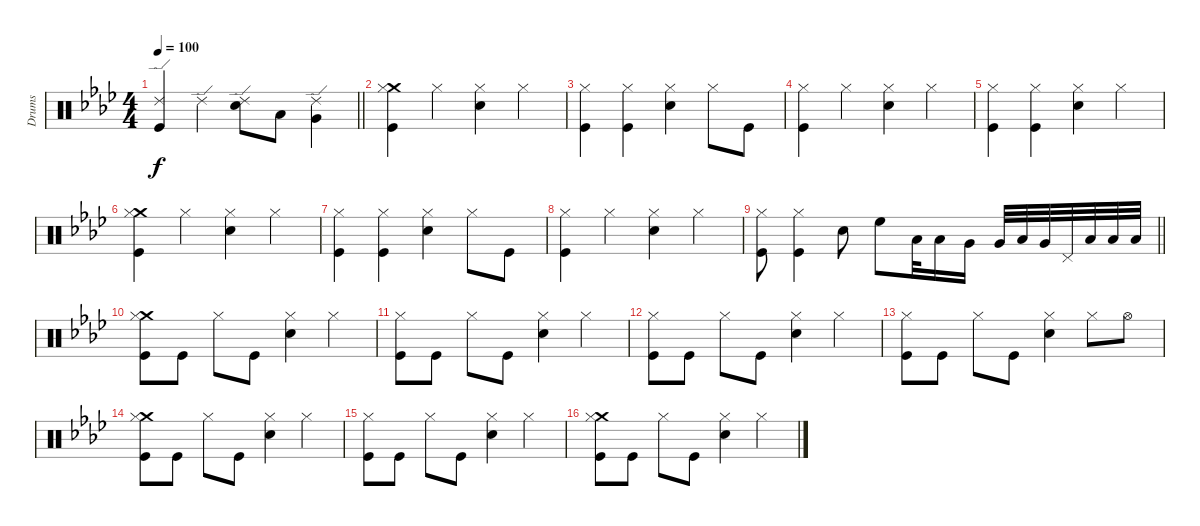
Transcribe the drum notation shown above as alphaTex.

\track ("Drums" "Drums") {instrument percussion}
\staff {score}
\articulation defaults
\ts (4 4)
\tempo 100
\clef neutral
\barLineRight lightlight
\ks ab
("Ride (edge) 2" "Kick (hit)").4{dy f} "Ride (edge) 2".4 ("Ride (edge) 2" "Electric Snare (hit)").8 "Low Tom (hit)".8 ("Ride (edge) 2" "Very Low Tom (hit)").4 |
("Crash medium (hit)" "Hi-Hat (closed)" "Kick (hit)").4 "Hi-Hat (closed)".4 ("Hi-Hat (closed)" "Electric Snare (hit)").4 "Hi-Hat (closed)".4 |
("Hi-Hat (closed)" "Kick (hit)").4 ("Hi-Hat (closed)" "Kick (hit)").4 ("Hi-Hat (closed)" "Electric Snare (hit)").4 "Hi-Hat (closed)".8 "Kick (hit)".8 |
("Hi-Hat (closed)" "Kick (hit)").4 "Hi-Hat (closed)".4 ("Hi-Hat (closed)" "Electric Snare (hit)").4 "Hi-Hat (closed)".4 |
("Hi-Hat (closed)" "Kick (hit)").4 ("Hi-Hat (closed)" "Kick (hit)").4 ("Hi-Hat (closed)" "Electric Snare (hit)").4 "Hi-Hat (closed)".4 |
("Crash medium (hit)" "Hi-Hat (closed)" "Kick (hit)").4 "Hi-Hat (closed)".4 ("Hi-Hat (closed)" "Electric Snare (hit)").4 "Hi-Hat (closed)".4 |
("Hi-Hat (closed)" "Kick (hit)").4 ("Hi-Hat (closed)" "Kick (hit)").4 ("Hi-Hat (closed)" "Electric Snare (hit)").4 "Hi-Hat (closed)".8 "Kick (hit)".8 |
("Hi-Hat (closed)" "Kick (hit)").4 "Hi-Hat (closed)".4 ("Hi-Hat (closed)" "Electric Snare (hit)").4 "Hi-Hat (closed)".4 |
\barLineRight lightlight
("Hi-Hat (closed)" "Kick (hit)").8 ("Hi-Hat (closed)" "Kick (hit)").4 "Electric Snare (hit)".8 "High Floor Tom (hit)".8 "Low Tom (hit)".32 "Low Tom (hit)".16 "Very Low Tom (hit)".16 "Very Low Tom (hit)".32 "Low Tom (hit)".32 "Very Low Tom (hit)".32 "Pedal Hi-Hat (hit)".32 "Low Tom (hit)".32 "Low Tom (hit)".32 "Low Tom (hit)".32 |
("Crash medium (hit)" "Hi-Hat (closed)" "Kick (hit)").8 "Kick (hit)".8 "Hi-Hat (closed)".8 "Kick (hit)".8 ("Hi-Hat (closed)" "Electric Snare (hit)").4 "Hi-Hat (closed)".4 |
("Hi-Hat (closed)" "Kick (hit)").8 "Kick (hit)".8 "Hi-Hat (closed)".8 "Kick (hit)".8 ("Hi-Hat (closed)" "Electric Snare (hit)").4 "Hi-Hat (closed)".4 |
("Hi-Hat (closed)" "Kick (hit)").8 "Kick (hit)".8 "Hi-Hat (closed)".8 "Kick (hit)".8 ("Hi-Hat (closed)" "Electric Snare (hit)").4 "Hi-Hat (closed)".4 |
("Hi-Hat (closed)" "Kick (hit)").8 "Kick (hit)".8 "Hi-Hat (closed)".8 "Kick (hit)".8 ("Hi-Hat (closed)" "Electric Snare (hit)").4 "Hi-Hat (closed)".8 "Hi-Hat (open)".8 |
("Crash medium (hit)" "Hi-Hat (closed)" "Kick (hit)").8 "Kick (hit)".8 "Hi-Hat (closed)".8 "Kick (hit)".8 ("Hi-Hat (closed)" "Electric Snare (hit)").4 "Hi-Hat (closed)".4 |
("Hi-Hat (closed)" "Kick (hit)").8 "Kick (hit)".8 "Hi-Hat (closed)".8 "Kick (hit)".8 ("Hi-Hat (closed)" "Electric Snare (hit)").4 "Hi-Hat (closed)".4 |
("Crash medium (hit)" "Hi-Hat (closed)" "Kick (hit)").8 "Kick (hit)".8 "Hi-Hat (closed)".8 "Kick (hit)".8 ("Hi-Hat (closed)" "Electric Snare (hit)").4 "Hi-Hat (closed)".4
